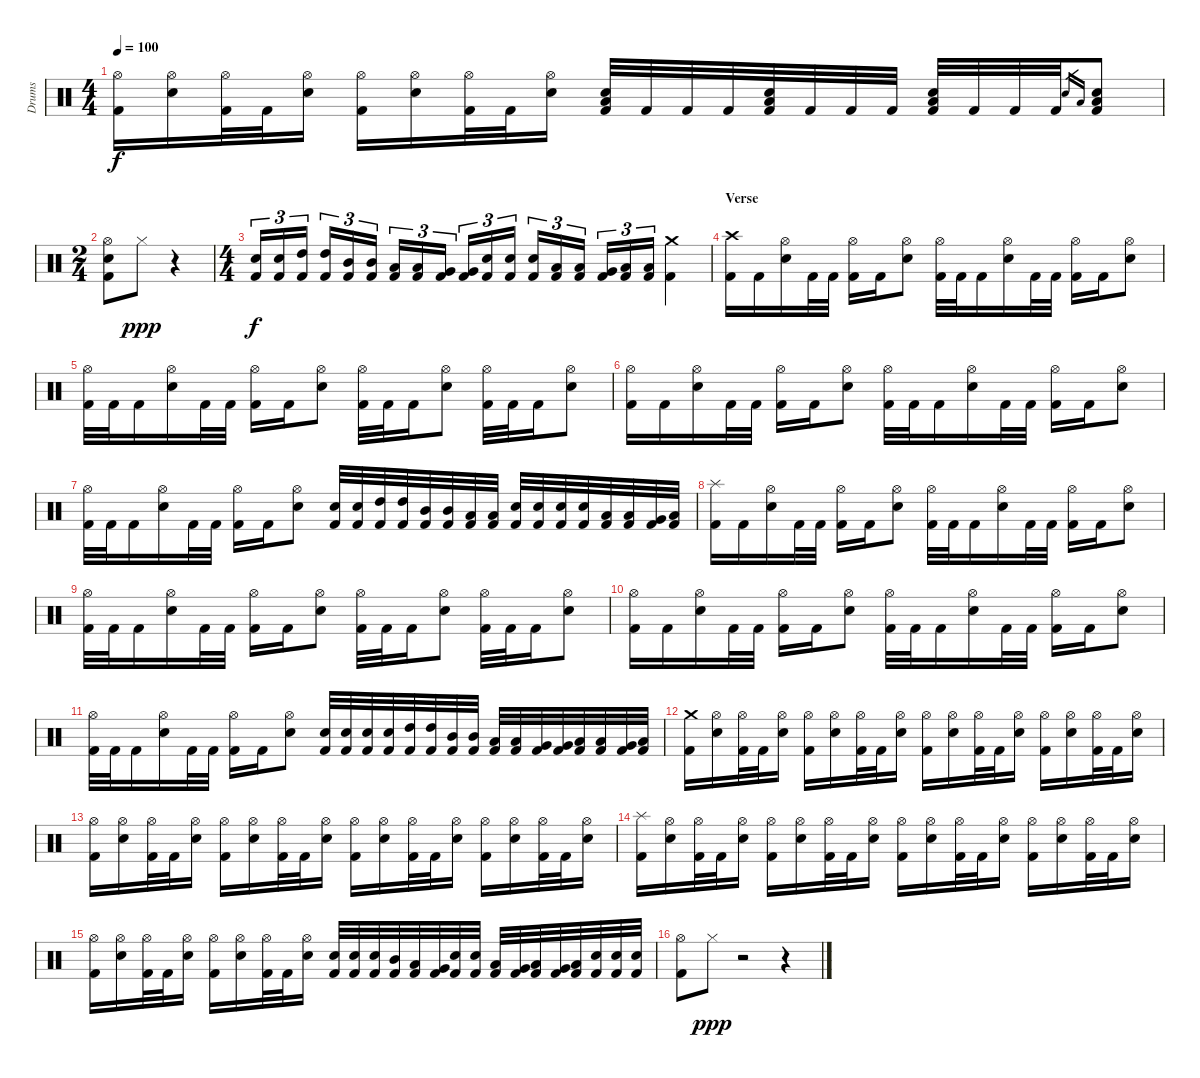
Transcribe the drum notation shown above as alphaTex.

\track ("Drums" "Drums") {instrument percussion}
\staff {score}
\articulation defaults
\ts (4 4)
\tempo 100
\clef neutral
\ks c
("Kick (hit) 2" "Hi-Hat (open)").16{dy f} ("Snare (hit) 2" "Hi-Hat (open)").16 ("Kick (hit) 2" "Hi-Hat (open)").32 "Kick (hit) 2".32 ("Snare (hit) 2" "Hi-Hat (open)").16 ("Kick (hit) 2" "Hi-Hat (open)").16 ("Snare (hit) 2" "Hi-Hat (open)").16 ("Kick (hit) 2" "Hi-Hat (open)").32 "Kick (hit) 2".32 ("Snare (hit) 2" "Hi-Hat (open)").16 ("Kick (hit) 2" "Snare (hit) 2" "Low Floor Tom (hit)").32 "Kick (hit) 2".32 "Kick (hit) 2".32 "Kick (hit) 2".32 ("Kick (hit) 2" "Snare (hit) 2" "Low Floor Tom (hit)").32 "Kick (hit) 2".32 "Kick (hit) 2".32 "Kick (hit) 2".32 ("Kick (hit) 2" "Snare (hit) 2" "Low Floor Tom (hit)").32 "Kick (hit) 2".32 "Kick (hit) 2".32 "Kick (hit) 2".32 "Snare (hit) 2".16{gr} "Low Floor Tom (hit)".16{gr} ("Kick (hit) 2" "Snare (hit) 2" "Low Floor Tom (hit)").8 |
\ts (2 4)
("Kick (hit) 2" "Snare (hit) 2" "Hi-Hat (open)").8 "Hi-Hat (closed)".8{dy ppp} r.4 |
\ts (4 4)
("Kick (hit) 2" "Snare (hit) 2").16{tu (3 2) dy f} ("Kick (hit) 2" "Snare (hit) 2").16{tu (3 2)} ("Kick (hit) 2" "High Tom (hit)").16{tu (3 2)} ("Kick (hit) 2" "High Tom (hit)").16{tu (3 2)} ("Kick (hit) 2" "Mid Tom (hit)").16{tu (3 2)} ("Kick (hit) 2" "Mid Tom (hit)").16{tu (3 2)} ("Kick (hit) 2" "Low Tom (hit)").16{tu (3 2)} ("Kick (hit) 2" "Low Tom (hit)").16{tu (3 2)} ("Kick (hit) 2" "Very Low Tom (hit)").16{tu (3 2)} ("Kick (hit) 2" "Very Low Tom (hit)").16{tu (3 2)} ("Kick (hit) 2" "Snare (hit) 2").16{tu (3 2)} ("Kick (hit) 2" "Snare (hit) 2").16{tu (3 2)} ("Kick (hit) 2" "Snare (hit) 2").16{tu (3 2)} ("Kick (hit) 2" "Low Tom (hit)").16{tu (3 2)} ("Kick (hit) 2" "Low Tom (hit)").16{tu (3 2)} ("Kick (hit) 2" "Very Low Tom (hit)").16{tu (3 2)} ("Kick (hit) 2" "Low Floor Tom (hit)").16{tu (3 2)} ("Kick (hit) 2" "Low Floor Tom (hit)").16{tu (3 2)} ("Kick (hit) 2" "Crash medium (hit)").4 |
\section ("" "Verse")
("Kick (hit) 2" "Crash high (hit)").16 "Kick (hit) 2".16 ("Snare (hit) 2" "Hi-Hat (open)").16 "Kick (hit) 2".32 "Kick (hit) 2".32 ("Kick (hit) 2" "Hi-Hat (open)").16 "Kick (hit) 2".16 ("Snare (hit) 2" "Hi-Hat (open)").8 ("Kick (hit) 2" "Hi-Hat (open)").32 "Kick (hit) 2".32 "Kick (hit) 2".16 ("Snare (hit) 2" "Hi-Hat (open)").16 "Kick (hit) 2".32 "Kick (hit) 2".32 ("Kick (hit) 2" "Hi-Hat (open)").16 "Kick (hit) 2".16 ("Snare (hit) 2" "Hi-Hat (open)").8 |
("Kick (hit) 2" "Hi-Hat (open)").32 "Kick (hit) 2".32 "Kick (hit) 2".16 ("Snare (hit) 2" "Hi-Hat (open)").16 "Kick (hit) 2".32 "Kick (hit) 2".32 ("Kick (hit) 2" "Hi-Hat (open)").16 "Kick (hit) 2".16 ("Snare (hit) 2" "Hi-Hat (open)").8 ("Kick (hit) 2" "Hi-Hat (open)").32 "Kick (hit) 2".32 "Kick (hit) 2".16 ("Snare (hit) 2" "Hi-Hat (open)").8 ("Kick (hit) 2" "Hi-Hat (open)").32 "Kick (hit) 2".32 "Kick (hit) 2".16 ("Snare (hit) 2" "Hi-Hat (open)").8 |
("Kick (hit) 2" "Hi-Hat (open)").16 "Kick (hit) 2".16 ("Snare (hit) 2" "Hi-Hat (open)").16 "Kick (hit) 2".32 "Kick (hit) 2".32 ("Kick (hit) 2" "Hi-Hat (open)").16 "Kick (hit) 2".16 ("Snare (hit) 2" "Hi-Hat (open)").8 ("Kick (hit) 2" "Hi-Hat (open)").32 "Kick (hit) 2".32 "Kick (hit) 2".16 ("Snare (hit) 2" "Hi-Hat (open)").16 "Kick (hit) 2".32 "Kick (hit) 2".32 ("Kick (hit) 2" "Hi-Hat (open)").16 "Kick (hit) 2".16 ("Snare (hit) 2" "Hi-Hat (open)").8 |
("Kick (hit) 2" "Hi-Hat (open)").32 "Kick (hit) 2".32 "Kick (hit) 2".16 ("Snare (hit) 2" "Hi-Hat (open)").16 "Kick (hit) 2".32 "Kick (hit) 2".32 ("Kick (hit) 2" "Hi-Hat (open)").16 "Kick (hit) 2".16 ("Snare (hit) 2" "Hi-Hat (open)").8 ("Kick (hit) 2" "Snare (hit) 2").32 ("Kick (hit) 2" "Snare (hit) 2").32 ("Kick (hit) 2" "High Tom (hit)").32 ("Kick (hit) 2" "High Tom (hit)").32 ("Kick (hit) 2" "Mid Tom (hit)").32 ("Kick (hit) 2" "Mid Tom (hit)").32 ("Kick (hit) 2" "Low Tom (hit)").32 ("Kick (hit) 2" "Low Tom (hit)").32 ("Kick (hit) 2" "Snare (hit) 2").32 ("Kick (hit) 2" "Snare (hit) 2").32 ("Kick (hit) 2" "Snare (hit) 2").32 ("Kick (hit) 2" "Snare (hit) 2").32 ("Kick (hit) 2" "Low Tom (hit)").32 ("Kick (hit) 2" "Low Tom (hit)").32 ("Kick (hit) 2" "Very Low Tom (hit)").32 ("Kick (hit) 2" "Low Floor Tom (hit)").32 |
("Kick (hit) 2" "Splash (hit)").16 "Kick (hit) 2".16 ("Snare (hit) 2" "Hi-Hat (open)").16 "Kick (hit) 2".32 "Kick (hit) 2".32 ("Kick (hit) 2" "Hi-Hat (open)").16 "Kick (hit) 2".16 ("Snare (hit) 2" "Hi-Hat (open)").8 ("Kick (hit) 2" "Hi-Hat (open)").32 "Kick (hit) 2".32 "Kick (hit) 2".16 ("Snare (hit) 2" "Hi-Hat (open)").16 "Kick (hit) 2".32 "Kick (hit) 2".32 ("Kick (hit) 2" "Hi-Hat (open)").16 "Kick (hit) 2".16 ("Snare (hit) 2" "Hi-Hat (open)").8 |
("Kick (hit) 2" "Hi-Hat (open)").32 "Kick (hit) 2".32 "Kick (hit) 2".16 ("Snare (hit) 2" "Hi-Hat (open)").16 "Kick (hit) 2".32 "Kick (hit) 2".32 ("Kick (hit) 2" "Hi-Hat (open)").16 "Kick (hit) 2".16 ("Snare (hit) 2" "Hi-Hat (open)").8 ("Kick (hit) 2" "Hi-Hat (open)").32 "Kick (hit) 2".32 "Kick (hit) 2".16 ("Snare (hit) 2" "Hi-Hat (open)").8 ("Kick (hit) 2" "Hi-Hat (open)").32 "Kick (hit) 2".32 "Kick (hit) 2".16 ("Snare (hit) 2" "Hi-Hat (open)").8 |
("Kick (hit) 2" "Hi-Hat (open)").16 "Kick (hit) 2".16 ("Snare (hit) 2" "Hi-Hat (open)").16 "Kick (hit) 2".32 "Kick (hit) 2".32 ("Kick (hit) 2" "Hi-Hat (open)").16 "Kick (hit) 2".16 ("Snare (hit) 2" "Hi-Hat (open)").8 ("Kick (hit) 2" "Hi-Hat (open)").32 "Kick (hit) 2".32 "Kick (hit) 2".16 ("Snare (hit) 2" "Hi-Hat (open)").16 "Kick (hit) 2".32 "Kick (hit) 2".32 ("Kick (hit) 2" "Hi-Hat (open)").16 "Kick (hit) 2".16 ("Snare (hit) 2" "Hi-Hat (open)").8 |
("Kick (hit) 2" "Hi-Hat (open)").32 "Kick (hit) 2".32 "Kick (hit) 2".16 ("Snare (hit) 2" "Hi-Hat (open)").16 "Kick (hit) 2".32 "Kick (hit) 2".32 ("Kick (hit) 2" "Hi-Hat (open)").16 "Kick (hit) 2".16 ("Snare (hit) 2" "Hi-Hat (open)").8 ("Kick (hit) 2" "Snare (hit) 2").32 ("Kick (hit) 2" "Snare (hit) 2").32 ("Kick (hit) 2" "Snare (hit) 2").32 ("Kick (hit) 2" "Snare (hit) 2").32 ("Kick (hit) 2" "High Tom (hit)").32 ("Kick (hit) 2" "High Tom (hit)").32 ("Kick (hit) 2" "Mid Tom (hit)").32 ("Kick (hit) 2" "Mid Tom (hit)").32 ("Kick (hit) 2" "Low Tom (hit)").32 ("Kick (hit) 2" "Low Tom (hit)").32 ("Kick (hit) 2" "Very Low Tom (hit)").32 ("Kick (hit) 2" "Very Low Tom (hit)").32 ("Kick (hit) 2" "Low Floor Tom (hit)").32 ("Kick (hit) 2" "Low Floor Tom (hit)").32 ("Kick (hit) 2" "Very Low Tom (hit)").32 ("Kick (hit) 2" "Low Floor Tom (hit)").32 |
\section ("" "")
("Kick (hit) 2" "Crash medium (hit)").16 ("Snare (hit) 2" "Hi-Hat (open)").16 ("Kick (hit) 2" "Hi-Hat (open)").32 "Kick (hit) 2".32 ("Snare (hit) 2" "Hi-Hat (open)").16 ("Kick (hit) 2" "Hi-Hat (open)").16 ("Snare (hit) 2" "Hi-Hat (open)").16 ("Kick (hit) 2" "Hi-Hat (open)").32 "Kick (hit) 2".32 ("Snare (hit) 2" "Hi-Hat (open)").16 ("Kick (hit) 2" "Hi-Hat (open)").16 ("Snare (hit) 2" "Hi-Hat (open)").16 ("Kick (hit) 2" "Hi-Hat (open)").32 "Kick (hit) 2".32 ("Snare (hit) 2" "Hi-Hat (open)").16 ("Kick (hit) 2" "Hi-Hat (open)").16 ("Snare (hit) 2" "Hi-Hat (open)").16 ("Kick (hit) 2" "Hi-Hat (open)").32 "Kick (hit) 2".32 ("Snare (hit) 2" "Hi-Hat (open)").16 |
("Kick (hit) 2" "Hi-Hat (open)").16 ("Snare (hit) 2" "Hi-Hat (open)").16 ("Kick (hit) 2" "Hi-Hat (open)").32 "Kick (hit) 2".32 ("Snare (hit) 2" "Hi-Hat (open)").16 ("Kick (hit) 2" "Hi-Hat (open)").16 ("Snare (hit) 2" "Hi-Hat (open)").16 ("Kick (hit) 2" "Hi-Hat (open)").32 "Kick (hit) 2".32 ("Snare (hit) 2" "Hi-Hat (open)").16 ("Kick (hit) 2" "Hi-Hat (open)").16 ("Snare (hit) 2" "Hi-Hat (open)").16 ("Kick (hit) 2" "Hi-Hat (open)").32 "Kick (hit) 2".32 ("Snare (hit) 2" "Hi-Hat (open)").16 ("Kick (hit) 2" "Hi-Hat (open)").16 ("Snare (hit) 2" "Hi-Hat (open)").16 ("Kick (hit) 2" "Hi-Hat (open)").32 "Kick (hit) 2".32 ("Snare (hit) 2" "Hi-Hat (open)").16 |
("Kick (hit) 2" "Splash (hit)").16 ("Snare (hit) 2" "Hi-Hat (open)").16 ("Kick (hit) 2" "Hi-Hat (open)").32 "Kick (hit) 2".32 ("Snare (hit) 2" "Hi-Hat (open)").16 ("Kick (hit) 2" "Hi-Hat (open)").16 ("Snare (hit) 2" "Hi-Hat (open)").16 ("Kick (hit) 2" "Hi-Hat (open)").32 "Kick (hit) 2".32 ("Snare (hit) 2" "Hi-Hat (open)").16 ("Kick (hit) 2" "Hi-Hat (open)").16 ("Snare (hit) 2" "Hi-Hat (open)").16 ("Kick (hit) 2" "Hi-Hat (open)").32 "Kick (hit) 2".32 ("Snare (hit) 2" "Hi-Hat (open)").16 ("Kick (hit) 2" "Hi-Hat (open)").16 ("Snare (hit) 2" "Hi-Hat (open)").16 ("Kick (hit) 2" "Hi-Hat (open)").32 "Kick (hit) 2".32 ("Snare (hit) 2" "Hi-Hat (open)").16 |
("Kick (hit) 2" "Hi-Hat (open)").16 ("Snare (hit) 2" "Hi-Hat (open)").16 ("Kick (hit) 2" "Hi-Hat (open)").32 "Kick (hit) 2".32 ("Snare (hit) 2" "Hi-Hat (open)").16 ("Kick (hit) 2" "Hi-Hat (open)").16 ("Snare (hit) 2" "Hi-Hat (open)").16 ("Kick (hit) 2" "Hi-Hat (open)").32 "Kick (hit) 2".32 ("Snare (hit) 2" "Hi-Hat (open)").16 ("Kick (hit) 2" "Snare (hit) 2").32 ("Kick (hit) 2" "Snare (hit) 2").32 ("Kick (hit) 2" "Snare (hit) 2").32 ("Kick (hit) 2" "Mid Tom (hit)").32 ("Kick (hit) 2" "Low Tom (hit)").32 ("Kick (hit) 2" "Very Low Tom (hit)").32 ("Kick (hit) 2" "Snare (hit) 2").32 ("Kick (hit) 2" "Snare (hit) 2").32 ("Kick (hit) 2" "Low Tom (hit)").32 ("Kick (hit) 2" "Very Low Tom (hit)").32 ("Kick (hit) 2" "Low Floor Tom (hit)").32 ("Kick (hit) 2" "Very Low Tom (hit)").32 ("Kick (hit) 2" "Low Floor Tom (hit)").32 ("Kick (hit) 2" "Snare (hit) 2").32 ("Kick (hit) 2" "Snare (hit) 2").32 ("Kick (hit) 2" "Snare (hit) 2").32 |
\section ("" "")
("Kick (hit) 2" "Hi-Hat (open)").8 "Hi-Hat (closed)".8{dy ppp} r.2 r.4
